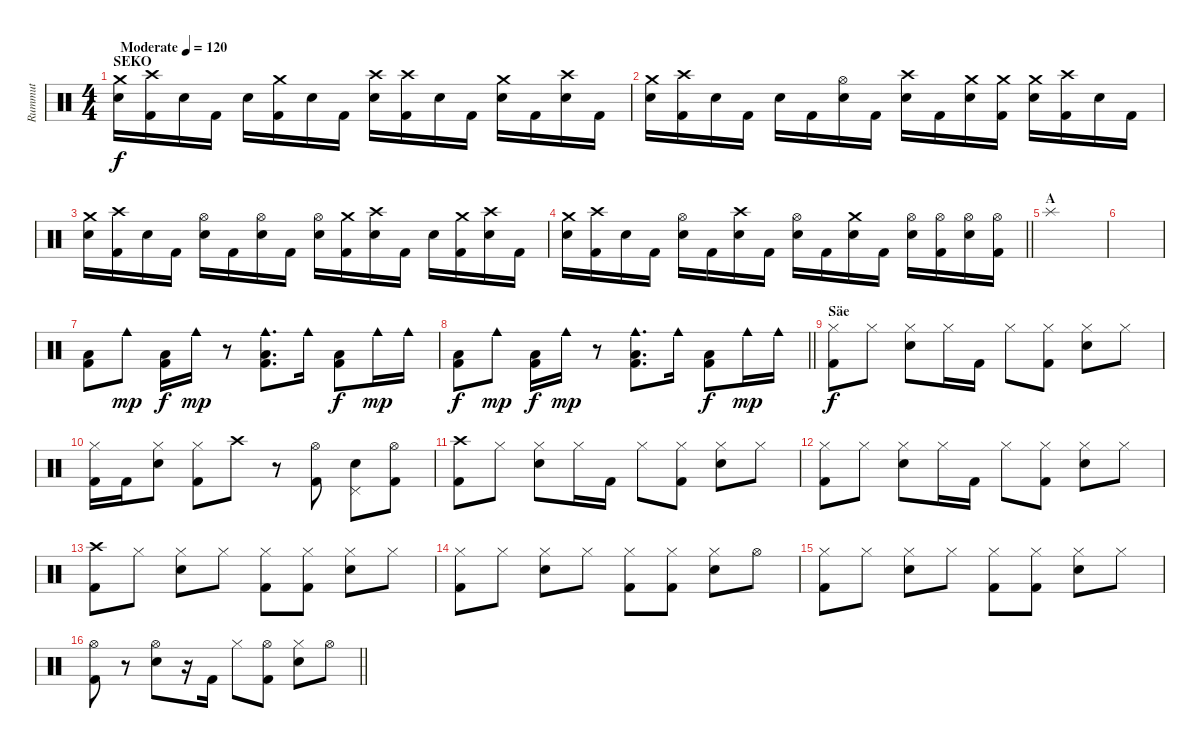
\track ("Rummut" "Rummut") {instrument percussion}
\staff {score}
\articulation defaults
\ts (4 4)
\section ("" "SEKO")
\tempo (120 "Moderate")
\clef neutral
\ks c
("Crash medium (hit)" "Snare (hit) 2").16{dy f} ("Crash high (hit)" "Kick (hit) 2").16 "Snare (hit) 2".16 "Kick (hit) 2".16 "Snare (hit) 2".16 ("Crash medium (hit)" "Kick (hit) 2").16 "Snare (hit) 2".16 "Kick (hit) 2".16 ("Crash high (hit)" "Snare (hit) 2").16 ("Crash high (hit)" "Kick (hit) 2").16 "Snare (hit) 2".16 "Kick (hit) 2".16 ("Crash medium (hit)" "Snare (hit) 2").16 "Kick (hit) 2".16 ("Crash high (hit)" "Snare (hit) 2").16 "Kick (hit) 2".16 |
("Crash medium (hit)" "Snare (hit) 2").16 ("Crash high (hit)" "Kick (hit) 2").16 "Snare (hit) 2".16 "Kick (hit) 2".16 "Snare (hit) 2".16 "Kick (hit) 2".16 ("Hi-Hat (open)" "Snare (hit) 2").16 "Kick (hit) 2".16 ("Crash high (hit)" "Snare (hit) 2").16 "Kick (hit) 2".16 ("Crash medium (hit)" "Snare (hit) 2").16 ("Crash medium (hit)" "Kick (hit) 2").16 ("Crash medium (hit)" "Snare (hit) 2").16 ("Crash high (hit)" "Kick (hit) 2").16 "Snare (hit) 2".16 "Kick (hit) 2".16 |
("Crash medium (hit)" "Snare (hit) 2").16 ("Crash high (hit)" "Kick (hit) 2").16 "Snare (hit) 2".16 "Kick (hit) 2".16 ("Hi-Hat (open)" "Snare (hit) 2").16 "Kick (hit) 2".16 ("Hi-Hat (open)" "Snare (hit) 2").16 "Kick (hit) 2".16 ("Hi-Hat (open)" "Snare (hit) 2").16 ("Crash medium (hit)" "Kick (hit) 2").16 ("Crash high (hit)" "Snare (hit) 2").16 "Kick (hit) 2".16 "Snare (hit) 2".16 ("Crash medium (hit)" "Kick (hit) 2").16 ("Crash high (hit)" "Snare (hit) 2").16 "Kick (hit) 2".16 |
\barLineRight lightlight
("Crash medium (hit)" "Snare (hit) 2").16 ("Crash high (hit)" "Kick (hit) 2").16 "Snare (hit) 2".16 "Kick (hit) 2".16 ("Hi-Hat (open)" "Snare (hit) 2").16 "Kick (hit) 2".16 ("Crash high (hit)" "Snare (hit) 2").16 "Kick (hit) 2".16 ("Hi-Hat (open)" "Snare (hit) 2").16 "Kick (hit) 2".16 ("Crash medium (hit)" "Snare (hit) 2").16 "Kick (hit) 2".16 ("Hi-Hat (open)" "Snare (hit) 2").16 ("Hi-Hat (open)" "Kick (hit) 2").16 ("Hi-Hat (open)" "Snare (hit) 2").16 ("Hi-Hat (open)" "Kick (hit) 2").16 |
\section ("" "A")
"Splash (hit)".1 |
|
("Low Tom (hit)" "Kick (hit) 2").8 "Cowbell medium (hit)".8{dy mp} ("Low Tom (hit)" "Kick (hit) 2").16{dy f} "Cowbell medium (hit)".16{dy mp} r.8 ("Cowbell medium (hit)" "Low Tom (hit)" "Kick (hit) 2").8{d} "Cowbell medium (hit)".16 ("Low Tom (hit)" "Kick (hit) 2").8{dy f} "Cowbell medium (hit)".16{dy mp} "Cowbell medium (hit)".16 |
\barLineRight lightlight
("Low Tom (hit)" "Kick (hit) 2").8{dy f} "Cowbell medium (hit)".8{dy mp} ("Low Tom (hit)" "Kick (hit) 2").16{dy f} "Cowbell medium (hit)".16{dy mp} r.8 ("Cowbell medium (hit)" "Low Tom (hit)" "Kick (hit) 2").8{d} "Cowbell medium (hit)".16 ("Low Tom (hit)" "Kick (hit) 2").8{dy f} "Cowbell medium (hit)".16{dy mp} "Cowbell medium (hit)".16 |
\section ("" "Säe")
("Hi-Hat (closed)" "Kick (hit) 2").8{dy f} "Hi-Hat (closed)".8 ("Hi-Hat (closed)" "Snare (hit) 2").8 "Hi-Hat (closed)".16 "Kick (hit) 2".16 "Hi-Hat (closed)".8 ("Hi-Hat (closed)" "Kick (hit) 2").8 ("Hi-Hat (closed)" "Snare (hit) 2").8 "Hi-Hat (closed)".8 |
("Hi-Hat (closed)" "Kick (hit) 2").16 "Kick (hit) 2".16 ("Hi-Hat (closed)" "Snare (hit) 2").8 ("Hi-Hat (closed)" "Kick (hit) 2").8 "Crash high (hit)".8 r.8 ("Hi-Hat (open)" "Kick (hit) 2").8 ("Pedal Hi-Hat (hit)" "Snare (hit) 2").8 ("Hi-Hat (open)" "Kick (hit) 2").8 |
("Crash high (hit)" "Kick (hit) 2").8 "Hi-Hat (closed)".8 ("Hi-Hat (closed)" "Snare (hit) 2").8 "Hi-Hat (closed)".16 "Kick (hit) 2".16 "Hi-Hat (closed)".8 ("Hi-Hat (closed)" "Kick (hit) 2").8 ("Hi-Hat (closed)" "Snare (hit) 2").8 "Hi-Hat (closed)".8 |
("Hi-Hat (closed)" "Kick (hit) 2").8 "Hi-Hat (closed)".8 ("Hi-Hat (closed)" "Snare (hit) 2").8 "Hi-Hat (closed)".16 "Kick (hit) 2".16 "Hi-Hat (closed)".8 ("Hi-Hat (closed)" "Kick (hit) 2").8 ("Hi-Hat (closed)" "Snare (hit) 2").8 "Hi-Hat (closed)".8 |
("Crash high (hit)" "Kick (hit) 2").8 "Hi-Hat (closed)".8 ("Hi-Hat (closed)" "Snare (hit) 2").8 "Hi-Hat (closed)".8 ("Hi-Hat (closed)" "Kick (hit) 2").8 ("Hi-Hat (closed)" "Kick (hit) 2").8 ("Hi-Hat (closed)" "Snare (hit) 2").8 "Hi-Hat (closed)".8 |
("Hi-Hat (closed)" "Kick (hit) 2").8 "Hi-Hat (closed)".8 ("Hi-Hat (closed)" "Snare (hit) 2").8 "Hi-Hat (closed)".8 ("Hi-Hat (closed)" "Kick (hit) 2").8 ("Hi-Hat (closed)" "Kick (hit) 2").8 ("Hi-Hat (closed)" "Snare (hit) 2").8 "Hi-Hat (open)".8 |
("Hi-Hat (closed)" "Kick (hit) 2").8 "Hi-Hat (closed)".8 ("Hi-Hat (closed)" "Snare (hit) 2").8 "Hi-Hat (closed)".8 ("Hi-Hat (closed)" "Kick (hit) 2").8 ("Hi-Hat (closed)" "Kick (hit) 2").8 ("Hi-Hat (closed)" "Snare (hit) 2").8 "Hi-Hat (closed)".8 |
\barLineRight lightlight
("Hi-Hat (open)" "Kick (hit) 2").8 r.8 ("Hi-Hat (open)" "Snare (hit) 2").8 r.16 "Kick (hit) 2".16 "Hi-Hat (closed)".8 ("Hi-Hat (open)" "Kick (hit) 2").8 ("Hi-Hat (closed)" "Snare (hit) 2").8 "Hi-Hat (open)".8
